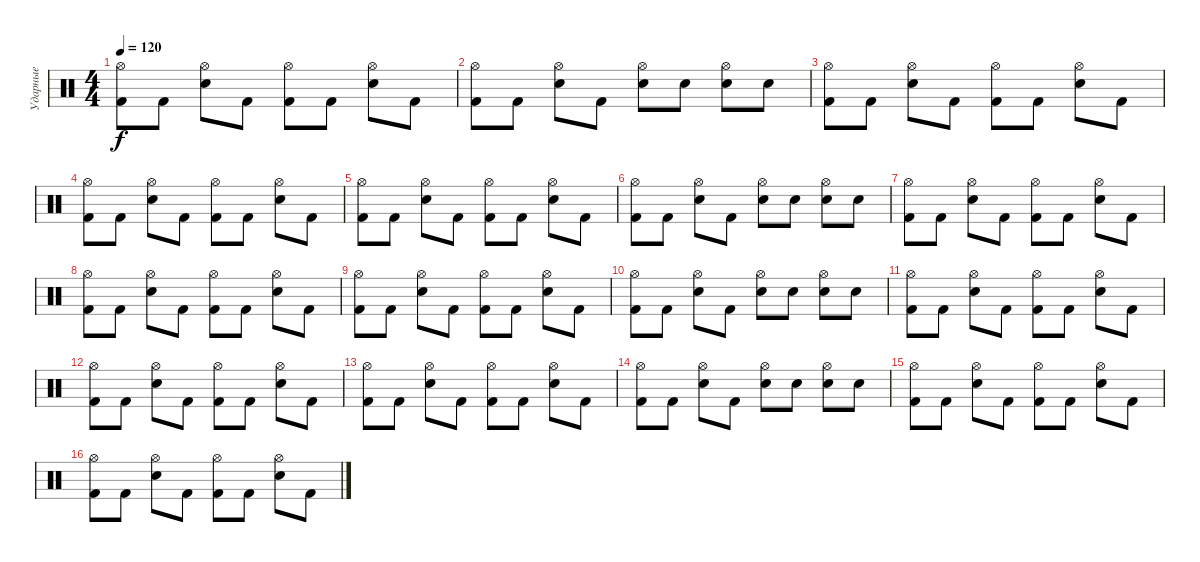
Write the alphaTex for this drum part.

\track ("Ударные" "Ударные") {instrument percussion}
\staff {score}
\articulation defaults
\ts (4 4)
\tempo 120
\clef neutral
\ks c
("Hi-Hat (open)" "Kick (hit) 2").8{dy f} "Kick (hit) 2".8 ("Hi-Hat (open)" "Snare (hit) 2").8 "Kick (hit) 2".8 ("Hi-Hat (open)" "Kick (hit) 2").8 "Kick (hit) 2".8 ("Hi-Hat (open)" "Snare (hit) 2").8 "Kick (hit) 2".8 |
("Hi-Hat (open)" "Kick (hit) 2").8 "Kick (hit) 2".8 ("Hi-Hat (open)" "Snare (hit) 2").8 "Kick (hit) 2".8 ("Hi-Hat (open)" "Snare (hit) 2").8 "Snare (hit) 2".8 ("Hi-Hat (open)" "Snare (hit) 2").8 "Snare (hit) 2".8 |
("Hi-Hat (open)" "Kick (hit) 2").8 "Kick (hit) 2".8 ("Hi-Hat (open)" "Snare (hit) 2").8 "Kick (hit) 2".8 ("Hi-Hat (open)" "Kick (hit) 2").8 "Kick (hit) 2".8 ("Hi-Hat (open)" "Snare (hit) 2").8 "Kick (hit) 2".8 |
("Hi-Hat (open)" "Kick (hit) 2").8 "Kick (hit) 2".8 ("Hi-Hat (open)" "Snare (hit) 2").8 "Kick (hit) 2".8 ("Hi-Hat (open)" "Kick (hit) 2").8 "Kick (hit) 2".8 ("Hi-Hat (open)" "Snare (hit) 2").8 "Kick (hit) 2".8 |
("Hi-Hat (open)" "Kick (hit) 2").8 "Kick (hit) 2".8 ("Hi-Hat (open)" "Snare (hit) 2").8 "Kick (hit) 2".8 ("Hi-Hat (open)" "Kick (hit) 2").8 "Kick (hit) 2".8 ("Hi-Hat (open)" "Snare (hit) 2").8 "Kick (hit) 2".8 |
("Hi-Hat (open)" "Kick (hit) 2").8 "Kick (hit) 2".8 ("Hi-Hat (open)" "Snare (hit) 2").8 "Kick (hit) 2".8 ("Hi-Hat (open)" "Snare (hit) 2").8 "Snare (hit) 2".8 ("Hi-Hat (open)" "Snare (hit) 2").8 "Snare (hit) 2".8 |
("Hi-Hat (open)" "Kick (hit) 2").8 "Kick (hit) 2".8 ("Hi-Hat (open)" "Snare (hit) 2").8 "Kick (hit) 2".8 ("Hi-Hat (open)" "Kick (hit) 2").8 "Kick (hit) 2".8 ("Hi-Hat (open)" "Snare (hit) 2").8 "Kick (hit) 2".8 |
("Hi-Hat (open)" "Kick (hit) 2").8 "Kick (hit) 2".8 ("Hi-Hat (open)" "Snare (hit) 2").8 "Kick (hit) 2".8 ("Hi-Hat (open)" "Kick (hit) 2").8 "Kick (hit) 2".8 ("Hi-Hat (open)" "Snare (hit) 2").8 "Kick (hit) 2".8 |
("Hi-Hat (open)" "Kick (hit) 2").8 "Kick (hit) 2".8 ("Hi-Hat (open)" "Snare (hit) 2").8 "Kick (hit) 2".8 ("Hi-Hat (open)" "Kick (hit) 2").8 "Kick (hit) 2".8 ("Hi-Hat (open)" "Snare (hit) 2").8 "Kick (hit) 2".8 |
("Hi-Hat (open)" "Kick (hit) 2").8 "Kick (hit) 2".8 ("Hi-Hat (open)" "Snare (hit) 2").8 "Kick (hit) 2".8 ("Hi-Hat (open)" "Snare (hit) 2").8 "Snare (hit) 2".8 ("Hi-Hat (open)" "Snare (hit) 2").8 "Snare (hit) 2".8 |
("Hi-Hat (open)" "Kick (hit) 2").8 "Kick (hit) 2".8 ("Hi-Hat (open)" "Snare (hit) 2").8 "Kick (hit) 2".8 ("Hi-Hat (open)" "Kick (hit) 2").8 "Kick (hit) 2".8 ("Hi-Hat (open)" "Snare (hit) 2").8 "Kick (hit) 2".8 |
("Hi-Hat (open)" "Kick (hit) 2").8 "Kick (hit) 2".8 ("Hi-Hat (open)" "Snare (hit) 2").8 "Kick (hit) 2".8 ("Hi-Hat (open)" "Kick (hit) 2").8 "Kick (hit) 2".8 ("Hi-Hat (open)" "Snare (hit) 2").8 "Kick (hit) 2".8 |
("Hi-Hat (open)" "Kick (hit) 2").8 "Kick (hit) 2".8 ("Hi-Hat (open)" "Snare (hit) 2").8 "Kick (hit) 2".8 ("Hi-Hat (open)" "Kick (hit) 2").8 "Kick (hit) 2".8 ("Hi-Hat (open)" "Snare (hit) 2").8 "Kick (hit) 2".8 |
("Hi-Hat (open)" "Kick (hit) 2").8 "Kick (hit) 2".8 ("Hi-Hat (open)" "Snare (hit) 2").8 "Kick (hit) 2".8 ("Hi-Hat (open)" "Snare (hit) 2").8 "Snare (hit) 2".8 ("Hi-Hat (open)" "Snare (hit) 2").8 "Snare (hit) 2".8 |
("Hi-Hat (open)" "Kick (hit) 2").8 "Kick (hit) 2".8 ("Hi-Hat (open)" "Snare (hit) 2").8 "Kick (hit) 2".8 ("Hi-Hat (open)" "Kick (hit) 2").8 "Kick (hit) 2".8 ("Hi-Hat (open)" "Snare (hit) 2").8 "Kick (hit) 2".8 |
("Hi-Hat (open)" "Kick (hit) 2").8 "Kick (hit) 2".8 ("Hi-Hat (open)" "Snare (hit) 2").8 "Kick (hit) 2".8 ("Hi-Hat (open)" "Kick (hit) 2").8 "Kick (hit) 2".8 ("Hi-Hat (open)" "Snare (hit) 2").8 "Kick (hit) 2".8
